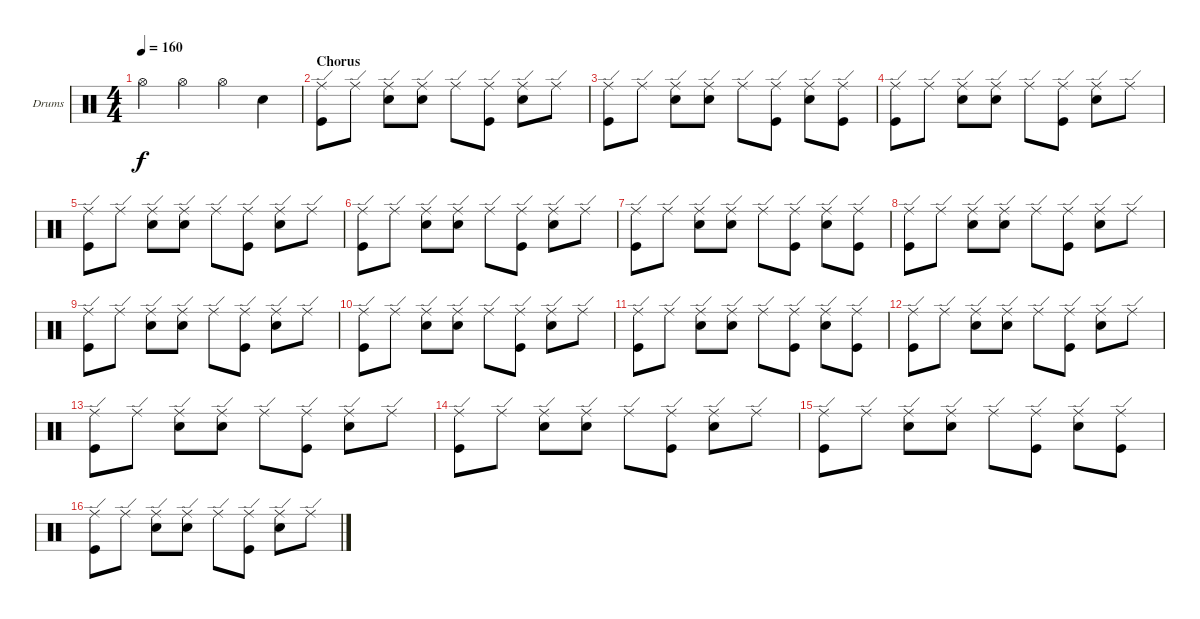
\bracketExtendMode groupsimilarinstruments
\firstSystemTrackNameOrientation horizontal
\otherSystemsTrackNameOrientation horizontal
\track ("Fabrizio" "Drums") {instrument percussion}
\staff {score}
\articulation defaults
\ts (4 4)
\tempo 160
\clef neutral
\ks c "Hi-Hat (open)".4{dy f} "Hi-Hat (open)".4 "Hi-Hat (open)".4 "Snare (hit) 2".4
|
\section ("" "Chorus")
("Kick (hit)" "Ride (edge)").8 "Ride (edge)".8 ("Snare (hit) 2" "Ride (edge)").8 ("Snare (hit) 2" "Ride (edge)").8 "Ride (edge)".8 ("Kick (hit)" "Ride (edge)").8 ("Snare (hit) 2" "Ride (edge)").8 "Ride (edge)".8 |
("Kick (hit)" "Ride (edge)").8 "Ride (edge)".8 ("Snare (hit) 2" "Ride (edge)").8 ("Snare (hit) 2" "Ride (edge)").8 "Ride (edge)".8 ("Kick (hit)" "Ride (edge)").8 ("Snare (hit) 2" "Ride (edge)").8 ("Ride (edge)" "Kick (hit)").8 |
("Kick (hit)" "Ride (edge)").8 "Ride (edge)".8 ("Snare (hit) 2" "Ride (edge)").8 ("Snare (hit) 2" "Ride (edge)").8 "Ride (edge)".8 ("Kick (hit)" "Ride (edge)").8 ("Snare (hit) 2" "Ride (edge)").8 "Ride (edge)".8 |
("Kick (hit)" "Ride (edge)").8 "Ride (edge)".8 ("Snare (hit) 2" "Ride (edge)").8 ("Snare (hit) 2" "Ride (edge)").8 "Ride (edge)".8 ("Kick (hit)" "Ride (edge)").8 ("Snare (hit) 2" "Ride (edge)").8 "Ride (edge)".8 |
("Kick (hit)" "Ride (edge)").8 "Ride (edge)".8 ("Snare (hit) 2" "Ride (edge)").8 ("Snare (hit) 2" "Ride (edge)").8 "Ride (edge)".8 ("Kick (hit)" "Ride (edge)").8 ("Snare (hit) 2" "Ride (edge)").8 "Ride (edge)".8 |
("Kick (hit)" "Ride (edge)").8 "Ride (edge)".8 ("Snare (hit) 2" "Ride (edge)").8 ("Snare (hit) 2" "Ride (edge)").8 "Ride (edge)".8 ("Kick (hit)" "Ride (edge)").8 ("Snare (hit) 2" "Ride (edge)").8 ("Ride (edge)" "Kick (hit)").8 |
("Kick (hit)" "Ride (edge)").8 "Ride (edge)".8 ("Snare (hit) 2" "Ride (edge)").8 ("Snare (hit) 2" "Ride (edge)").8 "Ride (edge)".8 ("Kick (hit)" "Ride (edge)").8 ("Snare (hit) 2" "Ride (edge)").8 "Ride (edge)".8 |
("Kick (hit)" "Ride (edge)").8 "Ride (edge)".8 ("Snare (hit) 2" "Ride (edge)").8 ("Snare (hit) 2" "Ride (edge)").8 "Ride (edge)".8 ("Kick (hit)" "Ride (edge)").8 ("Snare (hit) 2" "Ride (edge)").8 "Ride (edge)".8 |
("Kick (hit)" "Ride (edge)").8 "Ride (edge)".8 ("Snare (hit) 2" "Ride (edge)").8 ("Snare (hit) 2" "Ride (edge)").8 "Ride (edge)".8 ("Kick (hit)" "Ride (edge)").8 ("Snare (hit) 2" "Ride (edge)").8 "Ride (edge)".8 |
("Kick (hit)" "Ride (edge)").8 "Ride (edge)".8 ("Snare (hit) 2" "Ride (edge)").8 ("Snare (hit) 2" "Ride (edge)").8 "Ride (edge)".8 ("Kick (hit)" "Ride (edge)").8 ("Snare (hit) 2" "Ride (edge)").8 ("Ride (edge)" "Kick (hit)").8 |
("Kick (hit)" "Ride (edge)").8 "Ride (edge)".8 ("Snare (hit) 2" "Ride (edge)").8 ("Snare (hit) 2" "Ride (edge)").8 "Ride (edge)".8 ("Kick (hit)" "Ride (edge)").8 ("Snare (hit) 2" "Ride (edge)").8 "Ride (edge)".8 |
("Kick (hit)" "Ride (edge)").8 "Ride (edge)".8 ("Snare (hit) 2" "Ride (edge)").8 ("Snare (hit) 2" "Ride (edge)").8 "Ride (edge)".8 ("Kick (hit)" "Ride (edge)").8 ("Snare (hit) 2" "Ride (edge)").8 "Ride (edge)".8 |
("Kick (hit)" "Ride (edge)").8 "Ride (edge)".8 ("Snare (hit) 2" "Ride (edge)").8 ("Snare (hit) 2" "Ride (edge)").8 "Ride (edge)".8 ("Kick (hit)" "Ride (edge)").8 ("Snare (hit) 2" "Ride (edge)").8 "Ride (edge)".8 |
("Kick (hit)" "Ride (edge)").8 "Ride (edge)".8 ("Snare (hit) 2" "Ride (edge)").8 ("Snare (hit) 2" "Ride (edge)").8 "Ride (edge)".8 ("Kick (hit)" "Ride (edge)").8 ("Snare (hit) 2" "Ride (edge)").8 ("Ride (edge)" "Kick (hit)").8 |
("Kick (hit)" "Ride (edge)").8 "Ride (edge)".8 ("Snare (hit) 2" "Ride (edge)").8 ("Snare (hit) 2" "Ride (edge)").8 "Ride (edge)".8 ("Kick (hit)" "Ride (edge)").8 ("Snare (hit) 2" "Ride (edge)").8 "Ride (edge)".8
